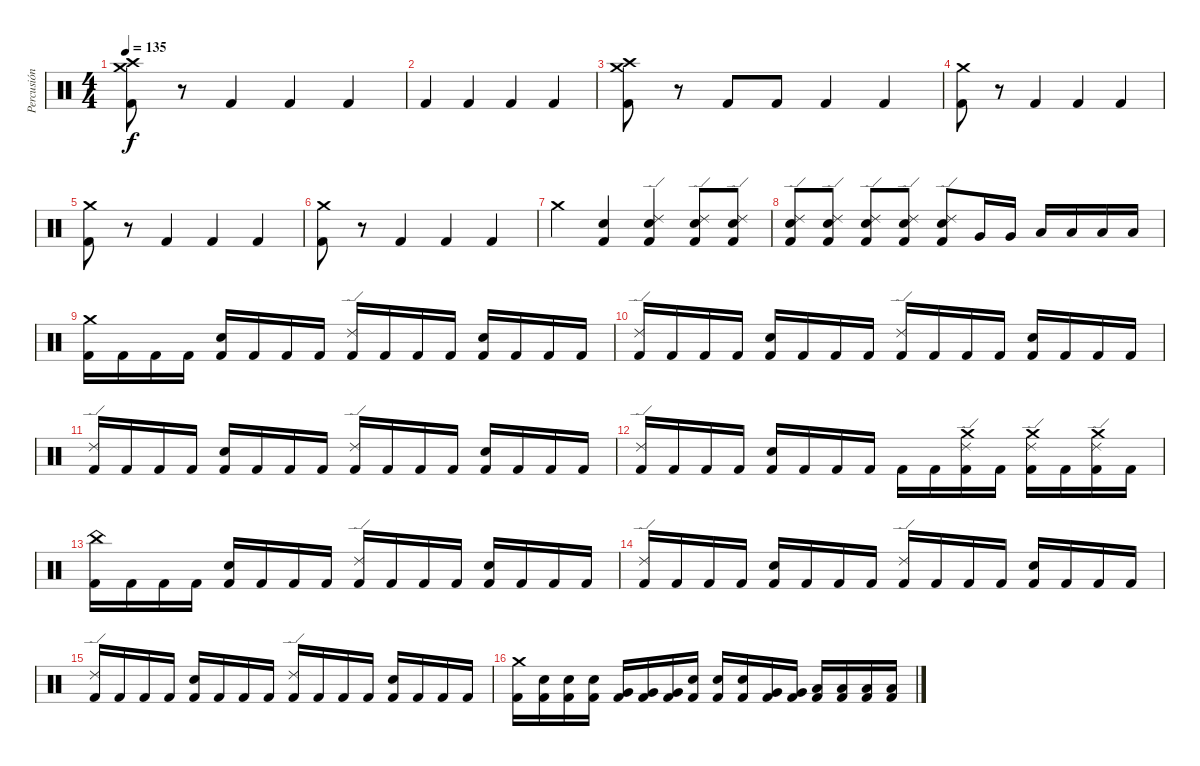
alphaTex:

\track ("Percusión" "Percusión") {instrument percussion}
\staff {score}
\articulation defaults
\ts (4 4)
\tempo 135
\clef neutral
\ks c
("Crash high (hit)" "Crash medium (hit)" "Kick (hit) 2").8{dy f} r.8 "Kick (hit) 2".4 "Kick (hit) 2".4 "Kick (hit) 2".4 |
"Kick (hit) 2".4 "Kick (hit) 2".4 "Kick (hit) 2".4 "Kick (hit) 2".4 |
("Crash high (hit)" "Crash medium (hit)" "Kick (hit) 2").8 r.8 "Kick (hit) 2".8 "Kick (hit) 2".8 "Kick (hit) 2".4 "Kick (hit) 2".4 |
("Crash medium (hit)" "Kick (hit) 2").8 r.8 "Kick (hit) 2".4 "Kick (hit) 2".4 "Kick (hit) 2".4 |
("Crash medium (hit)" "Kick (hit) 2").8 r.8 "Kick (hit) 2".4 "Kick (hit) 2".4 "Kick (hit) 2".4 |
("Crash medium (hit)" "Kick (hit) 2").8 r.8 "Kick (hit) 2".4 "Kick (hit) 2".4 "Kick (hit) 2".4 |
"Crash medium (hit)".4{volume 10} ("Snare (hit) 2" "Kick (hit) 2").4 ("Ride (edge) 2" "Snare (hit) 2" "Kick (hit) 2").4 ("Ride (edge) 2" "Snare (hit) 2" "Kick (hit) 2").8 ("Ride (edge) 2" "Snare (hit) 2" "Kick (hit) 2").8 |
("Ride (edge) 2" "Snare (hit) 2" "Kick (hit) 2").8 ("Ride (edge) 2" "Snare (hit) 2" "Kick (hit) 2").8{volume 16} ("Ride (edge) 2" "Snare (hit) 2" "Kick (hit) 2").8 ("Ride (edge) 2" "Snare (hit) 2" "Kick (hit) 2").8 ("Ride (edge) 2" "Snare (hit) 2" "Kick (hit) 2").8 "Very Low Tom (hit)".16 "Very Low Tom (hit)".16 "Low Tom (hit)".16 "Low Tom (hit)".16 "Low Floor Tom (hit)".16 "Low Floor Tom (hit)".16 |
("Crash medium (hit)" "Kick (hit) 2").16 "Kick (hit) 2".16 "Kick (hit) 2".16 "Kick (hit) 2".16 ("Snare (hit) 2" "Kick (hit) 2").16 "Kick (hit) 2".16 "Kick (hit) 2".16 "Kick (hit) 2".16 ("Ride (edge) 2" "Kick (hit) 2").16 "Kick (hit) 2".16 "Kick (hit) 2".16 "Kick (hit) 2".16 ("Snare (hit) 2" "Kick (hit) 2").16 "Kick (hit) 2".16 "Kick (hit) 2".16 "Kick (hit) 2".16 |
("Ride (edge) 2" "Kick (hit) 2").16 "Kick (hit) 2".16 "Kick (hit) 2".16 "Kick (hit) 2".16 ("Snare (hit) 2" "Kick (hit) 2").16 "Kick (hit) 2".16 "Kick (hit) 2".16 "Kick (hit) 2".16 ("Ride (edge) 2" "Kick (hit) 2").16 "Kick (hit) 2".16 "Kick (hit) 2".16 "Kick (hit) 2".16 ("Snare (hit) 2" "Kick (hit) 2").16 "Kick (hit) 2".16 "Kick (hit) 2".16 "Kick (hit) 2".16 |
("Ride (edge) 2" "Kick (hit) 2").16 "Kick (hit) 2".16 "Kick (hit) 2".16 "Kick (hit) 2".16 ("Snare (hit) 2" "Kick (hit) 2").16 "Kick (hit) 2".16 "Kick (hit) 2".16 "Kick (hit) 2".16 ("Ride (edge) 2" "Kick (hit) 2").16 "Kick (hit) 2".16 "Kick (hit) 2".16 "Kick (hit) 2".16 ("Snare (hit) 2" "Kick (hit) 2").16 "Kick (hit) 2".16 "Kick (hit) 2".16 "Kick (hit) 2".16 |
("Ride (edge) 2" "Kick (hit) 2").16 "Kick (hit) 2".16 "Kick (hit) 2".16 "Kick (hit) 2".16 ("Snare (hit) 2" "Kick (hit) 2").16 "Kick (hit) 2".16 "Kick (hit) 2".16 "Kick (hit) 2".16 "Kick (hit) 2".16 "Kick (hit) 2".16 ("Ride (edge) 2" "Crash medium (hit)" "Kick (hit) 2").16 "Kick (hit) 2".16 ("Ride (edge) 2" "Crash medium (hit)" "Kick (hit) 2").16 "Kick (hit) 2".16 ("Ride (edge) 2" "Crash medium (hit)" "Kick (hit) 2").16 "Kick (hit) 2".16 |
("China (hit)" "Kick (hit) 2").16 "Kick (hit) 2".16 "Kick (hit) 2".16 "Kick (hit) 2".16 ("Snare (hit) 2" "Kick (hit) 2").16 "Kick (hit) 2".16 "Kick (hit) 2".16 "Kick (hit) 2".16 ("Ride (edge) 2" "Kick (hit) 2").16 "Kick (hit) 2".16 "Kick (hit) 2".16 "Kick (hit) 2".16 ("Snare (hit) 2" "Kick (hit) 2").16 "Kick (hit) 2".16 "Kick (hit) 2".16 "Kick (hit) 2".16 |
("Ride (edge) 2" "Kick (hit) 2").16 "Kick (hit) 2".16 "Kick (hit) 2".16 "Kick (hit) 2".16 ("Snare (hit) 2" "Kick (hit) 2").16 "Kick (hit) 2".16 "Kick (hit) 2".16 "Kick (hit) 2".16 ("Ride (edge) 2" "Kick (hit) 2").16 "Kick (hit) 2".16 "Kick (hit) 2".16 "Kick (hit) 2".16 ("Snare (hit) 2" "Kick (hit) 2").16 "Kick (hit) 2".16 "Kick (hit) 2".16 "Kick (hit) 2".16 |
("Ride (edge) 2" "Kick (hit) 2").16 "Kick (hit) 2".16 "Kick (hit) 2".16 "Kick (hit) 2".16 ("Snare (hit) 2" "Kick (hit) 2").16 "Kick (hit) 2".16 "Kick (hit) 2".16 "Kick (hit) 2".16 ("Ride (edge) 2" "Kick (hit) 2").16 "Kick (hit) 2".16 "Kick (hit) 2".16 "Kick (hit) 2".16 ("Snare (hit) 2" "Kick (hit) 2").16 "Kick (hit) 2".16 "Kick (hit) 2".16 "Kick (hit) 2".16 |
("Crash medium (hit)" "Kick (hit) 2").16 ("Snare (hit) 2" "Kick (hit) 2").16 ("Snare (hit) 2" "Kick (hit) 2").16 ("Snare (hit) 2" "Kick (hit) 2").16 ("Very Low Tom (hit)" "Kick (hit) 2").16 ("Very Low Tom (hit)" "Kick (hit) 2").16 ("Very Low Tom (hit)" "Kick (hit) 2").16 ("Snare (hit) 2" "Kick (hit) 2").16 ("Snare (hit) 2" "Kick (hit) 2").16 ("Snare (hit) 2" "Kick (hit) 2").16 ("Very Low Tom (hit)" "Kick (hit) 2").16 ("Very Low Tom (hit)" "Kick (hit) 2").16 ("Low Floor Tom (hit)" "Kick (hit) 2").16 ("Low Floor Tom (hit)" "Kick (hit) 2").16 ("Low Tom (hit)" "Kick (hit) 2").16 ("Low Tom (hit)" "Kick (hit) 2").16
